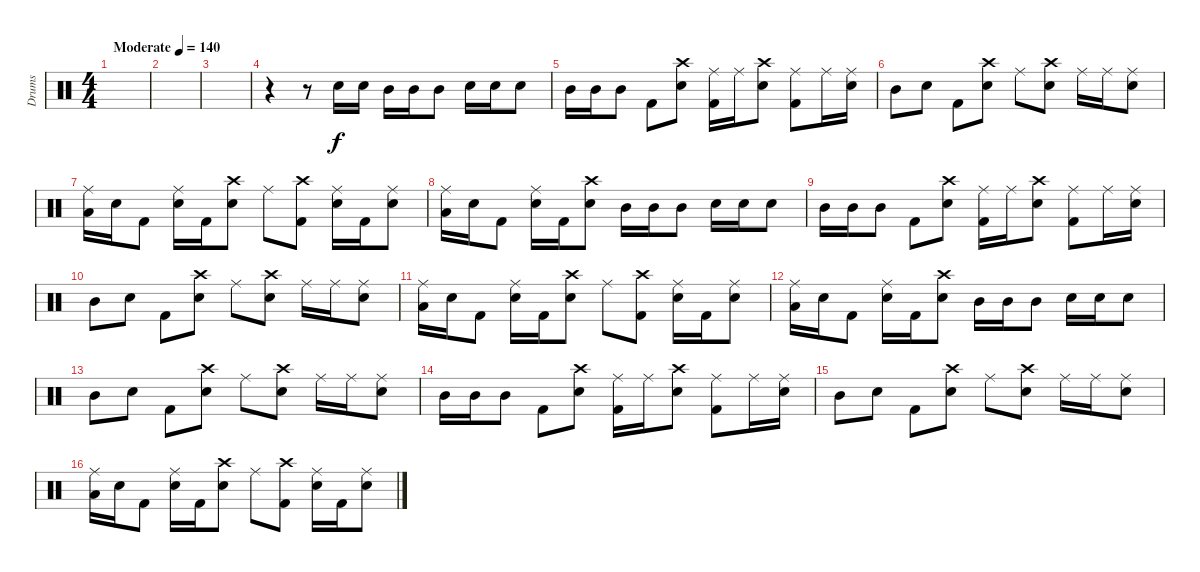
\track ("Drums" "Drums") {instrument percussion}
\staff {score}
\articulation defaults
\ts (4 4)
\tempo (140 "Moderate")
\clef neutral
\ks c
|
|
|
r.4 r.8 "Snare (hit) 2".16 "Snare (hit) 2".16 "Mid Tom (hit)".16 "Mid Tom (hit)".16 "Mid Tom (hit)".8 "Snare (hit) 2".16 "Snare (hit) 2".16 "Snare (hit) 2".8 |
"Mid Tom (hit)".16 "Mid Tom (hit)".16 "Mid Tom (hit)".8 "Kick (hit) 2".8 ("Crash high (hit)" "Snare (hit) 2").8 ("Ride (middle)" "Kick (hit) 2").16 "Ride (middle)".16 ("Crash high (hit)" "Snare (hit) 2").8 ("Ride (middle)" "Kick (hit) 2").8 "Ride (middle)".16 ("Ride (middle)" "Snare (hit) 2").16 |
"Mid Tom (hit)".8 "Snare (hit) 2".8 "Kick (hit) 2".8 ("Crash high (hit)" "Snare (hit) 2").8 "Ride (middle)".8 ("Crash high (hit)" "Snare (hit) 2").8 "Ride (middle)".16 "Ride (middle)".16 ("Ride (middle)" "Snare (hit) 2").8 |
("Ride (middle)" "Low Floor Tom (hit)").16 "Snare (hit) 2".16 "Kick (hit) 2".8 ("Ride (middle)" "Snare (hit) 2").16 "Kick (hit) 2".16 ("Crash high (hit)" "Snare (hit) 2").8 "Ride (middle)".8 ("Crash high (hit)" "Kick (hit) 2").8 ("Ride (middle)" "Snare (hit) 2").16 "Kick (hit) 2".16 ("Ride (middle)" "Snare (hit) 2").8 |
("Ride (middle)" "Low Floor Tom (hit)").16 "Snare (hit) 2".16 "Kick (hit) 2".8 ("Ride (middle)" "Snare (hit) 2").16 "Kick (hit) 2".16 ("Crash high (hit)" "Snare (hit) 2").8 "Mid Tom (hit)".16 "Mid Tom (hit)".16 "Mid Tom (hit)".8 "Snare (hit) 2".16 "Snare (hit) 2".16 "Snare (hit) 2".8 |
"Mid Tom (hit)".16 "Mid Tom (hit)".16 "Mid Tom (hit)".8 "Kick (hit) 2".8 ("Crash high (hit)" "Snare (hit) 2").8 ("Ride (middle)" "Kick (hit) 2").16 "Ride (middle)".16 ("Crash high (hit)" "Snare (hit) 2").8 ("Ride (middle)" "Kick (hit) 2").8 "Ride (middle)".16 ("Ride (middle)" "Snare (hit) 2").16 |
"Mid Tom (hit)".8 "Snare (hit) 2".8 "Kick (hit) 2".8 ("Crash high (hit)" "Snare (hit) 2").8 "Ride (middle)".8 ("Crash high (hit)" "Snare (hit) 2").8 "Ride (middle)".16 "Ride (middle)".16 ("Ride (middle)" "Snare (hit) 2").8 |
("Ride (middle)" "Low Floor Tom (hit)").16 "Snare (hit) 2".16 "Kick (hit) 2".8 ("Ride (middle)" "Snare (hit) 2").16 "Kick (hit) 2".16 ("Crash high (hit)" "Snare (hit) 2").8 "Ride (middle)".8 ("Crash high (hit)" "Kick (hit) 2").8 ("Ride (middle)" "Snare (hit) 2").16 "Kick (hit) 2".16 ("Ride (middle)" "Snare (hit) 2").8 |
("Ride (middle)" "Low Floor Tom (hit)").16 "Snare (hit) 2".16 "Kick (hit) 2".8 ("Ride (middle)" "Snare (hit) 2").16 "Kick (hit) 2".16 ("Crash high (hit)" "Snare (hit) 2").8 "Mid Tom (hit)".16 "Mid Tom (hit)".16 "Mid Tom (hit)".8 "Snare (hit) 2".16 "Snare (hit) 2".16 "Snare (hit) 2".8 |
"Mid Tom (hit)".8 "Snare (hit) 2".8 "Kick (hit) 2".8 ("Crash high (hit)" "Snare (hit) 2").8 "Ride (middle)".8 ("Crash high (hit)" "Snare (hit) 2").8 "Ride (middle)".16 "Ride (middle)".16 ("Ride (middle)" "Snare (hit) 2").8 |
"Mid Tom (hit)".16 "Mid Tom (hit)".16 "Mid Tom (hit)".8 "Kick (hit) 2".8 ("Crash high (hit)" "Snare (hit) 2").8 ("Ride (middle)" "Kick (hit) 2").16 "Ride (middle)".16 ("Crash high (hit)" "Snare (hit) 2").8 ("Ride (middle)" "Kick (hit) 2").8 "Ride (middle)".16 ("Ride (middle)" "Snare (hit) 2").16 |
"Mid Tom (hit)".8 "Snare (hit) 2".8 "Kick (hit) 2".8 ("Crash high (hit)" "Snare (hit) 2").8 "Ride (middle)".8 ("Crash high (hit)" "Snare (hit) 2").8 "Ride (middle)".16 "Ride (middle)".16 ("Ride (middle)" "Snare (hit) 2").8 |
("Ride (middle)" "Low Floor Tom (hit)").16 "Snare (hit) 2".16 "Kick (hit) 2".8 ("Ride (middle)" "Snare (hit) 2").16 "Kick (hit) 2".16 ("Crash high (hit)" "Snare (hit) 2").8 "Ride (middle)".8 ("Crash high (hit)" "Kick (hit) 2").8 ("Ride (middle)" "Snare (hit) 2").16 "Kick (hit) 2".16 ("Ride (middle)" "Snare (hit) 2").8
